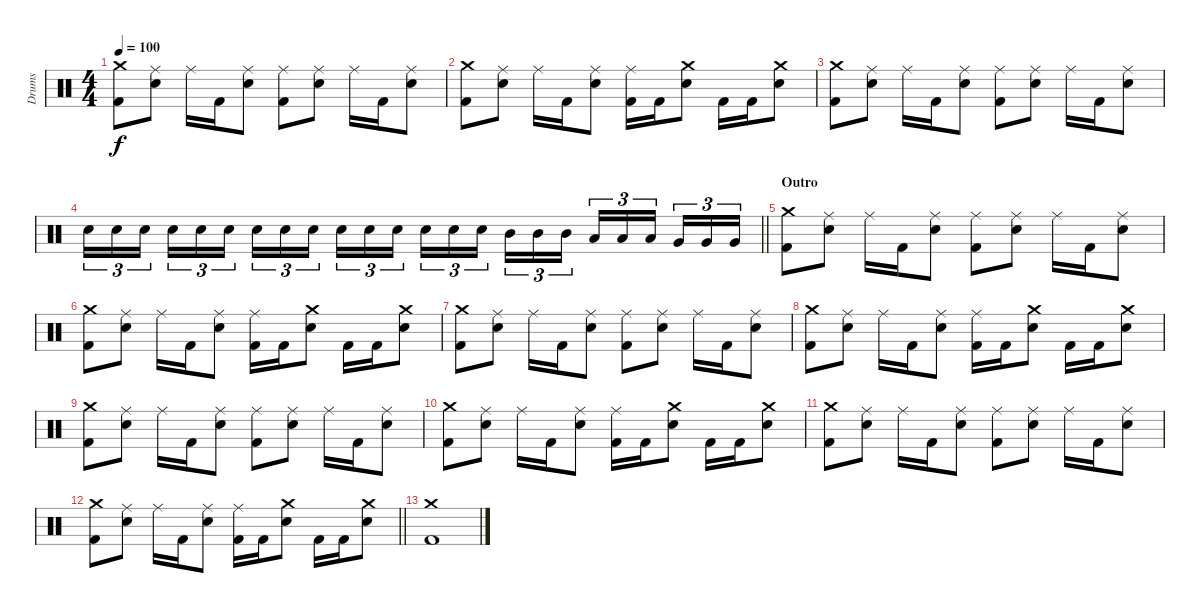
\track ("Drums" "Drums") {instrument percussion}
\staff {score}
\articulation defaults
\ts (4 4)
\tempo 100
\clef neutral
\ks c
("Crash medium (hit)" "Kick (hit) 2").8{dy f} ("Ride (middle)" "Electric Snare (hit)").8 "Ride (middle)".16 "Kick (hit) 2".16 ("Ride (middle)" "Electric Snare (hit)").8 ("Ride (middle)" "Kick (hit) 2").8 ("Ride (middle)" "Electric Snare (hit)").8 "Ride (middle)".16 "Kick (hit) 2".16 ("Ride (middle)" "Electric Snare (hit)").8 |
("Crash medium (hit)" "Kick (hit) 2").8 ("Ride (middle)" "Electric Snare (hit)").8 "Ride (middle)".16 "Kick (hit) 2".16 ("Ride (middle)" "Electric Snare (hit)").8 ("Ride (middle)" "Kick (hit) 2").16 "Kick (hit) 2".16 ("Crash medium (hit)" "Electric Snare (hit)").8 "Kick (hit) 2".16 "Kick (hit) 2".16 ("Crash medium (hit)" "Electric Snare (hit)").8 |
("Crash medium (hit)" "Kick (hit) 2").8 ("Ride (middle)" "Electric Snare (hit)").8 "Ride (middle)".16 "Kick (hit) 2".16 ("Ride (middle)" "Electric Snare (hit)").8 ("Ride (middle)" "Kick (hit) 2").8 ("Ride (middle)" "Electric Snare (hit)").8 "Ride (middle)".16 "Kick (hit) 2".16 ("Ride (middle)" "Electric Snare (hit)").8 |
\barLineRight lightlight "Electric Snare (hit)".16{tu (3 2)} "Electric Snare (hit)".16{tu (3 2)} "Electric Snare (hit)".16{tu (3 2)} "Electric Snare (hit)".16{tu (3 2)} "Electric Snare (hit)".16{tu (3 2)} "Electric Snare (hit)".16{tu (3 2)} "Electric Snare (hit)".16{tu (3 2)} "Electric Snare (hit)".16{tu (3 2)} "Electric Snare (hit)".16{tu (3 2)} "Electric Snare (hit)".16{tu (3 2)} "Electric Snare (hit)".16{tu (3 2)} "Electric Snare (hit)".16{tu (3 2)} "Electric Snare (hit)".16{tu (3 2)} "Electric Snare (hit)".16{tu (3 2)} "Electric Snare (hit)".16{tu (3 2)} "Mid Tom (hit)".16{tu (3 2)} "Mid Tom (hit)".16{tu (3 2)} "Mid Tom (hit)".16{tu (3 2)} "Low Tom (hit)".16{tu (3 2)} "Low Tom (hit)".16{tu (3 2)} "Low Tom (hit)".16{tu (3 2)} "Very Low Tom (hit)".16{tu (3 2)} "Very Low Tom (hit)".16{tu (3 2)} "Very Low Tom (hit)".16{tu (3 2)}
|
\section ("" "Outro")
("Crash medium (hit)" "Kick (hit) 2").8 ("Ride (middle)" "Electric Snare (hit)").8 "Ride (middle)".16 "Kick (hit) 2".16 ("Ride (middle)" "Electric Snare (hit)").8 ("Ride (middle)" "Kick (hit) 2").8 ("Ride (middle)" "Electric Snare (hit)").8 "Ride (middle)".16 "Kick (hit) 2".16 ("Ride (middle)" "Electric Snare (hit)").8 |
("Crash medium (hit)" "Kick (hit) 2").8 ("Ride (middle)" "Electric Snare (hit)").8 "Ride (middle)".16 "Kick (hit) 2".16 ("Ride (middle)" "Electric Snare (hit)").8 ("Ride (middle)" "Kick (hit) 2").16 "Kick (hit) 2".16 ("Crash medium (hit)" "Electric Snare (hit)").8 "Kick (hit) 2".16 "Kick (hit) 2".16 ("Crash medium (hit)" "Electric Snare (hit)").8 |
("Crash medium (hit)" "Kick (hit) 2").8 ("Ride (middle)" "Electric Snare (hit)").8 "Ride (middle)".16 "Kick (hit) 2".16 ("Ride (middle)" "Electric Snare (hit)").8 ("Ride (middle)" "Kick (hit) 2").8 ("Ride (middle)" "Electric Snare (hit)").8 "Ride (middle)".16 "Kick (hit) 2".16 ("Ride (middle)" "Electric Snare (hit)").8 |
("Crash medium (hit)" "Kick (hit) 2").8 ("Ride (middle)" "Electric Snare (hit)").8 "Ride (middle)".16 "Kick (hit) 2".16 ("Ride (middle)" "Electric Snare (hit)").8 ("Ride (middle)" "Kick (hit) 2").16 "Kick (hit) 2".16 ("Crash medium (hit)" "Electric Snare (hit)").8 "Kick (hit) 2".16 "Kick (hit) 2".16 ("Crash medium (hit)" "Electric Snare (hit)").8 |
("Crash medium (hit)" "Kick (hit) 2").8 ("Ride (middle)" "Electric Snare (hit)").8 "Ride (middle)".16 "Kick (hit) 2".16 ("Ride (middle)" "Electric Snare (hit)").8 ("Ride (middle)" "Kick (hit) 2").8 ("Ride (middle)" "Electric Snare (hit)").8 "Ride (middle)".16 "Kick (hit) 2".16 ("Ride (middle)" "Electric Snare (hit)").8 |
("Crash medium (hit)" "Kick (hit) 2").8 ("Ride (middle)" "Electric Snare (hit)").8 "Ride (middle)".16 "Kick (hit) 2".16 ("Ride (middle)" "Electric Snare (hit)").8 ("Ride (middle)" "Kick (hit) 2").16 "Kick (hit) 2".16 ("Crash medium (hit)" "Electric Snare (hit)").8 "Kick (hit) 2".16 "Kick (hit) 2".16 ("Crash medium (hit)" "Electric Snare (hit)").8 |
("Crash medium (hit)" "Kick (hit) 2").8 ("Ride (middle)" "Electric Snare (hit)").8 "Ride (middle)".16 "Kick (hit) 2".16 ("Ride (middle)" "Electric Snare (hit)").8 ("Ride (middle)" "Kick (hit) 2").8 ("Ride (middle)" "Electric Snare (hit)").8 "Ride (middle)".16 "Kick (hit) 2".16 ("Ride (middle)" "Electric Snare (hit)").8 |
\barLineRight lightlight
("Crash medium (hit)" "Kick (hit) 2").8 ("Ride (middle)" "Electric Snare (hit)").8 "Ride (middle)".16 "Kick (hit) 2".16 ("Ride (middle)" "Electric Snare (hit)").8 ("Ride (middle)" "Kick (hit) 2").16 "Kick (hit) 2".16 ("Crash medium (hit)" "Electric Snare (hit)").8 "Kick (hit) 2".16 "Kick (hit) 2".16 ("Crash medium (hit)" "Electric Snare (hit)").8 |
("Crash medium (hit)" "Kick (hit) 2").1
